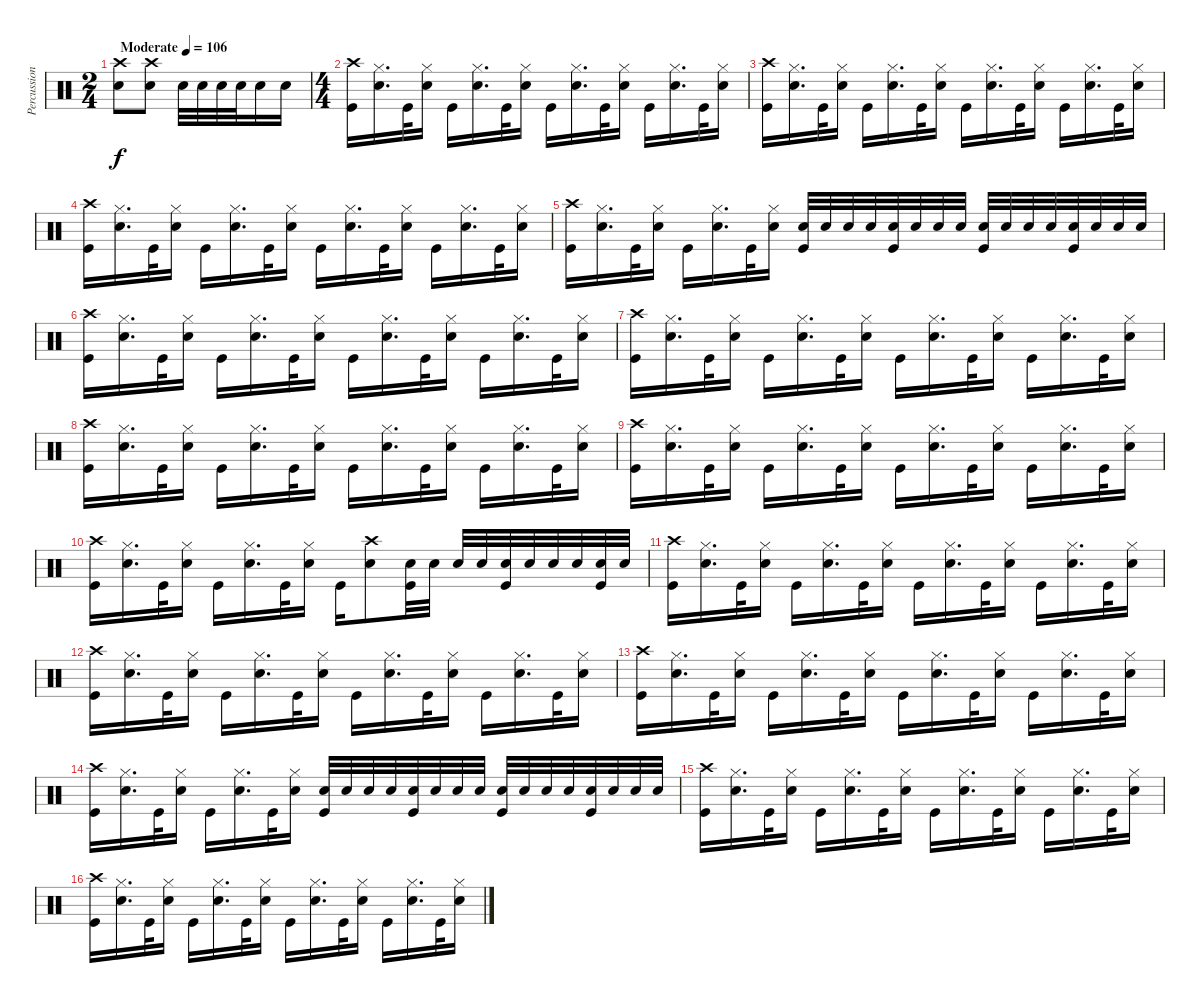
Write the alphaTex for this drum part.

\track ("Percussion" "Percussion") {instrument percussion}
\staff {score}
\articulation defaults
\ts (2 4)
\tempo (106 "Moderate")
\clef neutral
\ks c
("Crash high (hit)" "Electric Snare (hit)").8{dy f} ("Crash high (hit)" "Electric Snare (hit)").8 "Electric Snare (hit)".32 "Electric Snare (hit)".32 "Electric Snare (hit)".32 "Electric Snare (hit)".32 "Electric Snare (hit)".16 "Electric Snare (hit)".16 |
\ts (4 4)
("Crash high (hit)" "Kick (hit)").16 ("Hi-Hat (closed)" "Electric Snare (hit)").16{d} "Kick (hit)".32 ("Hi-Hat (closed)" "Electric Snare (hit)").16 "Kick (hit)".16 ("Hi-Hat (closed)" "Electric Snare (hit)").16{d} "Kick (hit)".32 ("Hi-Hat (closed)" "Electric Snare (hit)").16 "Kick (hit)".16 ("Hi-Hat (closed)" "Electric Snare (hit)").16{d} "Kick (hit)".32 ("Hi-Hat (closed)" "Electric Snare (hit)").16 "Kick (hit)".16 ("Hi-Hat (closed)" "Electric Snare (hit)").16{d} "Kick (hit)".32 ("Hi-Hat (closed)" "Electric Snare (hit)").16 |
("Crash high (hit)" "Kick (hit)").16 ("Hi-Hat (closed)" "Electric Snare (hit)").16{d} "Kick (hit)".32 ("Hi-Hat (closed)" "Electric Snare (hit)").16 "Kick (hit)".16 ("Hi-Hat (closed)" "Electric Snare (hit)").16{d} "Kick (hit)".32 ("Hi-Hat (closed)" "Electric Snare (hit)").16 "Kick (hit)".16 ("Hi-Hat (closed)" "Electric Snare (hit)").16{d} "Kick (hit)".32 ("Hi-Hat (closed)" "Electric Snare (hit)").16 "Kick (hit)".16 ("Hi-Hat (closed)" "Electric Snare (hit)").16{d} "Kick (hit)".32 ("Hi-Hat (closed)" "Electric Snare (hit)").16 |
("Crash high (hit)" "Kick (hit)").16 ("Hi-Hat (closed)" "Electric Snare (hit)").16{d} "Kick (hit)".32 ("Hi-Hat (closed)" "Electric Snare (hit)").16 "Kick (hit)".16 ("Hi-Hat (closed)" "Electric Snare (hit)").16{d} "Kick (hit)".32 ("Hi-Hat (closed)" "Electric Snare (hit)").16 "Kick (hit)".16 ("Hi-Hat (closed)" "Electric Snare (hit)").16{d} "Kick (hit)".32 ("Hi-Hat (closed)" "Electric Snare (hit)").16 "Kick (hit)".16 ("Hi-Hat (closed)" "Electric Snare (hit)").16{d} "Kick (hit)".32 ("Hi-Hat (closed)" "Electric Snare (hit)").16 |
("Crash high (hit)" "Kick (hit)").16 ("Hi-Hat (closed)" "Electric Snare (hit)").16{d} "Kick (hit)".32 ("Hi-Hat (closed)" "Electric Snare (hit)").16 "Kick (hit)".16 ("Hi-Hat (closed)" "Electric Snare (hit)").16{d} "Kick (hit)".32 ("Hi-Hat (closed)" "Electric Snare (hit)").16 ("Electric Snare (hit)" "Kick (hit)").32 "Electric Snare (hit)".32 "Electric Snare (hit)".32 "Electric Snare (hit)".32 ("Electric Snare (hit)" "Kick (hit)").32 "Electric Snare (hit)".32 "Electric Snare (hit)".32 "Electric Snare (hit)".32 ("Electric Snare (hit)" "Kick (hit)").32 "Electric Snare (hit)".32 "Electric Snare (hit)".32 "Electric Snare (hit)".32 ("Electric Snare (hit)" "Kick (hit)").32 "Electric Snare (hit)".32 "Electric Snare (hit)".32 "Electric Snare (hit)".32 |
("Crash high (hit)" "Kick (hit)").16 ("Hi-Hat (closed)" "Electric Snare (hit)").16{d} "Kick (hit)".32 ("Hi-Hat (closed)" "Electric Snare (hit)").16 "Kick (hit)".16 ("Hi-Hat (closed)" "Electric Snare (hit)").16{d} "Kick (hit)".32 ("Hi-Hat (closed)" "Electric Snare (hit)").16 "Kick (hit)".16 ("Hi-Hat (closed)" "Electric Snare (hit)").16{d} "Kick (hit)".32 ("Hi-Hat (closed)" "Electric Snare (hit)").16 "Kick (hit)".16 ("Hi-Hat (closed)" "Electric Snare (hit)").16{d} "Kick (hit)".32 ("Hi-Hat (closed)" "Electric Snare (hit)").16 |
("Crash high (hit)" "Kick (hit)").16 ("Hi-Hat (closed)" "Electric Snare (hit)").16{d} "Kick (hit)".32 ("Hi-Hat (closed)" "Electric Snare (hit)").16 "Kick (hit)".16 ("Hi-Hat (closed)" "Electric Snare (hit)").16{d} "Kick (hit)".32 ("Hi-Hat (closed)" "Electric Snare (hit)").16 "Kick (hit)".16 ("Hi-Hat (closed)" "Electric Snare (hit)").16{d} "Kick (hit)".32 ("Hi-Hat (closed)" "Electric Snare (hit)").16 "Kick (hit)".16 ("Hi-Hat (closed)" "Electric Snare (hit)").16{d} "Kick (hit)".32 ("Hi-Hat (closed)" "Electric Snare (hit)").16 |
("Crash high (hit)" "Kick (hit)").16 ("Hi-Hat (closed)" "Electric Snare (hit)").16{d} "Kick (hit)".32 ("Hi-Hat (closed)" "Electric Snare (hit)").16 "Kick (hit)".16 ("Hi-Hat (closed)" "Electric Snare (hit)").16{d} "Kick (hit)".32 ("Hi-Hat (closed)" "Electric Snare (hit)").16 "Kick (hit)".16 ("Hi-Hat (closed)" "Electric Snare (hit)").16{d} "Kick (hit)".32 ("Hi-Hat (closed)" "Electric Snare (hit)").16 "Kick (hit)".16 ("Hi-Hat (closed)" "Electric Snare (hit)").16{d} "Kick (hit)".32 ("Hi-Hat (closed)" "Electric Snare (hit)").16 |
("Crash high (hit)" "Kick (hit)").16 ("Hi-Hat (closed)" "Electric Snare (hit)").16{d} "Kick (hit)".32 ("Hi-Hat (closed)" "Electric Snare (hit)").16 "Kick (hit)".16 ("Hi-Hat (closed)" "Electric Snare (hit)").16{d} "Kick (hit)".32 ("Hi-Hat (closed)" "Electric Snare (hit)").16 "Kick (hit)".16 ("Hi-Hat (closed)" "Electric Snare (hit)").16{d} "Kick (hit)".32 ("Hi-Hat (closed)" "Electric Snare (hit)").16 "Kick (hit)".16 ("Hi-Hat (closed)" "Electric Snare (hit)").16{d} "Kick (hit)".32 ("Hi-Hat (closed)" "Electric Snare (hit)").16 |
("Crash high (hit)" "Kick (hit)").16 ("Hi-Hat (closed)" "Electric Snare (hit)").16{d} "Kick (hit)".32 ("Hi-Hat (closed)" "Electric Snare (hit)").16 "Kick (hit)".16 ("Hi-Hat (closed)" "Electric Snare (hit)").16{d} "Kick (hit)".32 ("Hi-Hat (closed)" "Electric Snare (hit)").16 "Kick (hit)".16 ("Crash high (hit)" "Electric Snare (hit)").8 ("Electric Snare (hit)" "Kick (hit)").32 "Electric Snare (hit)".32 "Electric Snare (hit)".32 "Electric Snare (hit)".32 ("Electric Snare (hit)" "Kick (hit)").32 "Electric Snare (hit)".32 "Electric Snare (hit)".32 "Electric Snare (hit)".32 ("Electric Snare (hit)" "Kick (hit)").32 "Electric Snare (hit)".32 |
("Crash high (hit)" "Kick (hit)").16 ("Hi-Hat (closed)" "Electric Snare (hit)").16{d} "Kick (hit)".32 ("Hi-Hat (closed)" "Electric Snare (hit)").16 "Kick (hit)".16 ("Hi-Hat (closed)" "Electric Snare (hit)").16{d} "Kick (hit)".32 ("Hi-Hat (closed)" "Electric Snare (hit)").16 "Kick (hit)".16 ("Hi-Hat (closed)" "Electric Snare (hit)").16{d} "Kick (hit)".32 ("Hi-Hat (closed)" "Electric Snare (hit)").16 "Kick (hit)".16 ("Hi-Hat (closed)" "Electric Snare (hit)").16{d} "Kick (hit)".32 ("Hi-Hat (closed)" "Electric Snare (hit)").16 |
("Crash high (hit)" "Kick (hit)").16 ("Hi-Hat (closed)" "Electric Snare (hit)").16{d} "Kick (hit)".32 ("Hi-Hat (closed)" "Electric Snare (hit)").16 "Kick (hit)".16 ("Hi-Hat (closed)" "Electric Snare (hit)").16{d} "Kick (hit)".32 ("Hi-Hat (closed)" "Electric Snare (hit)").16 "Kick (hit)".16 ("Hi-Hat (closed)" "Electric Snare (hit)").16{d} "Kick (hit)".32 ("Hi-Hat (closed)" "Electric Snare (hit)").16 "Kick (hit)".16 ("Hi-Hat (closed)" "Electric Snare (hit)").16{d} "Kick (hit)".32 ("Hi-Hat (closed)" "Electric Snare (hit)").16 |
("Crash high (hit)" "Kick (hit)").16 ("Hi-Hat (closed)" "Electric Snare (hit)").16{d} "Kick (hit)".32 ("Hi-Hat (closed)" "Electric Snare (hit)").16 "Kick (hit)".16 ("Hi-Hat (closed)" "Electric Snare (hit)").16{d} "Kick (hit)".32 ("Hi-Hat (closed)" "Electric Snare (hit)").16 "Kick (hit)".16 ("Hi-Hat (closed)" "Electric Snare (hit)").16{d} "Kick (hit)".32 ("Hi-Hat (closed)" "Electric Snare (hit)").16 "Kick (hit)".16 ("Hi-Hat (closed)" "Electric Snare (hit)").16{d} "Kick (hit)".32 ("Hi-Hat (closed)" "Electric Snare (hit)").16 |
("Crash high (hit)" "Kick (hit)").16 ("Hi-Hat (closed)" "Electric Snare (hit)").16{d} "Kick (hit)".32 ("Hi-Hat (closed)" "Electric Snare (hit)").16 "Kick (hit)".16 ("Hi-Hat (closed)" "Electric Snare (hit)").16{d} "Kick (hit)".32 ("Hi-Hat (closed)" "Electric Snare (hit)").16 ("Electric Snare (hit)" "Kick (hit)").32 "Electric Snare (hit)".32 "Electric Snare (hit)".32 "Electric Snare (hit)".32 ("Electric Snare (hit)" "Kick (hit)").32 "Electric Snare (hit)".32 "Electric Snare (hit)".32 "Electric Snare (hit)".32 ("Electric Snare (hit)" "Kick (hit)").32 "Electric Snare (hit)".32 "Electric Snare (hit)".32 "Electric Snare (hit)".32 ("Electric Snare (hit)" "Kick (hit)").32 "Electric Snare (hit)".32 "Electric Snare (hit)".32 "Electric Snare (hit)".32 |
("Crash high (hit)" "Kick (hit)").16 ("Hi-Hat (closed)" "Electric Snare (hit)").16{d} "Kick (hit)".32 ("Hi-Hat (closed)" "Electric Snare (hit)").16 "Kick (hit)".16 ("Hi-Hat (closed)" "Electric Snare (hit)").16{d} "Kick (hit)".32 ("Hi-Hat (closed)" "Electric Snare (hit)").16 "Kick (hit)".16 ("Hi-Hat (closed)" "Electric Snare (hit)").16{d} "Kick (hit)".32 ("Hi-Hat (closed)" "Electric Snare (hit)").16 "Kick (hit)".16 ("Hi-Hat (closed)" "Electric Snare (hit)").16{d} "Kick (hit)".32 ("Hi-Hat (closed)" "Electric Snare (hit)").16 |
("Crash high (hit)" "Kick (hit)").16 ("Hi-Hat (closed)" "Electric Snare (hit)").16{d} "Kick (hit)".32 ("Hi-Hat (closed)" "Electric Snare (hit)").16 "Kick (hit)".16 ("Hi-Hat (closed)" "Electric Snare (hit)").16{d} "Kick (hit)".32 ("Hi-Hat (closed)" "Electric Snare (hit)").16 "Kick (hit)".16 ("Hi-Hat (closed)" "Electric Snare (hit)").16{d} "Kick (hit)".32 ("Hi-Hat (closed)" "Electric Snare (hit)").16 "Kick (hit)".16 ("Hi-Hat (closed)" "Electric Snare (hit)").16{d} "Kick (hit)".32 ("Hi-Hat (closed)" "Electric Snare (hit)").16
